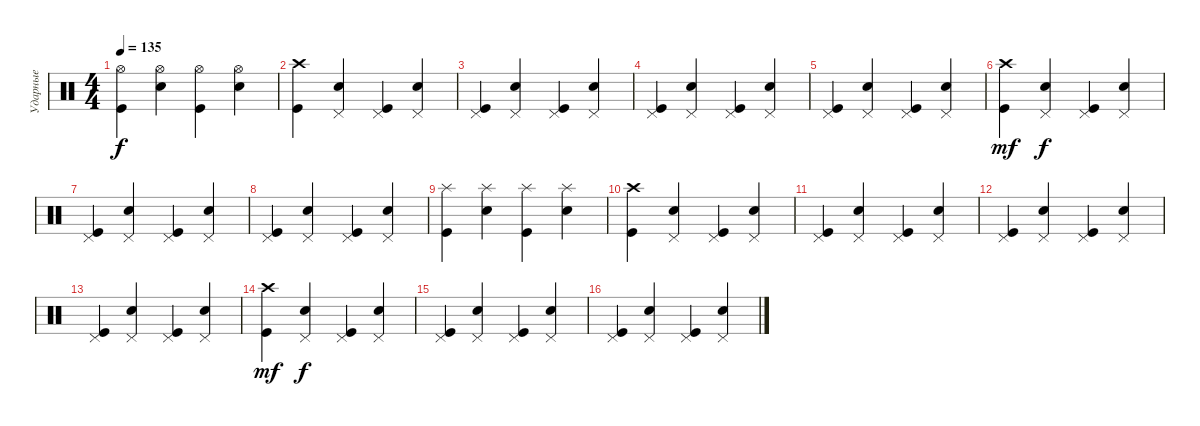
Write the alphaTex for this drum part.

\track ("Ударные" "Ударные") {instrument percussion}
\staff {score}
\articulation defaults
\ts (4 4)
\tempo 135
\clef neutral
\ks c
("Hi-Hat (open)" "Kick (hit)").4{dy f} ("Hi-Hat (open)" "Snare (hit) 2").4 ("Hi-Hat (open)" "Kick (hit)").4 ("Hi-Hat (open)" "Snare (hit) 2").4 |
("Crash high (hit)" "Kick (hit)").4 ("Pedal Hi-Hat (hit)" "Snare (hit) 2").4 ("Pedal Hi-Hat (hit)" "Kick (hit)").4 ("Pedal Hi-Hat (hit)" "Snare (hit) 2").4 |
("Pedal Hi-Hat (hit)" "Kick (hit)").4 ("Pedal Hi-Hat (hit)" "Snare (hit) 2").4 ("Pedal Hi-Hat (hit)" "Kick (hit)").4 ("Pedal Hi-Hat (hit)" "Snare (hit) 2").4 |
("Pedal Hi-Hat (hit)" "Kick (hit)").4 ("Pedal Hi-Hat (hit)" "Snare (hit) 2").4 ("Pedal Hi-Hat (hit)" "Kick (hit)").4 ("Pedal Hi-Hat (hit)" "Snare (hit) 2").4 |
("Pedal Hi-Hat (hit)" "Kick (hit)").4 ("Pedal Hi-Hat (hit)" "Snare (hit) 2").4 ("Pedal Hi-Hat (hit)" "Kick (hit)").4 ("Pedal Hi-Hat (hit)" "Snare (hit) 2").4 |
("Crash high (hit)" "Kick (hit)").4{dy mf} ("Pedal Hi-Hat (hit)" "Snare (hit) 2").4{dy f} ("Pedal Hi-Hat (hit)" "Kick (hit)").4 ("Pedal Hi-Hat (hit)" "Snare (hit) 2").4 |
("Pedal Hi-Hat (hit)" "Kick (hit)").4 ("Pedal Hi-Hat (hit)" "Snare (hit) 2").4 ("Pedal Hi-Hat (hit)" "Kick (hit)").4 ("Pedal Hi-Hat (hit)" "Snare (hit) 2").4 |
("Pedal Hi-Hat (hit)" "Kick (hit)").4 ("Pedal Hi-Hat (hit)" "Snare (hit) 2").4 ("Pedal Hi-Hat (hit)" "Kick (hit)").4 ("Pedal Hi-Hat (hit)" "Snare (hit) 2").4 |
("Splash (hit)" "Kick (hit)").4 ("Splash (hit)" "Snare (hit) 2").4 ("Splash (hit)" "Kick (hit)").4 ("Splash (hit)" "Snare (hit) 2").4 |
("Crash high (hit)" "Kick (hit)").4 ("Pedal Hi-Hat (hit)" "Snare (hit) 2").4 ("Pedal Hi-Hat (hit)" "Kick (hit)").4 ("Pedal Hi-Hat (hit)" "Snare (hit) 2").4 |
("Pedal Hi-Hat (hit)" "Kick (hit)").4 ("Pedal Hi-Hat (hit)" "Snare (hit) 2").4 ("Pedal Hi-Hat (hit)" "Kick (hit)").4 ("Pedal Hi-Hat (hit)" "Snare (hit) 2").4 |
("Pedal Hi-Hat (hit)" "Kick (hit)").4 ("Pedal Hi-Hat (hit)" "Snare (hit) 2").4 ("Pedal Hi-Hat (hit)" "Kick (hit)").4 ("Pedal Hi-Hat (hit)" "Snare (hit) 2").4 |
("Pedal Hi-Hat (hit)" "Kick (hit)").4 ("Pedal Hi-Hat (hit)" "Snare (hit) 2").4 ("Pedal Hi-Hat (hit)" "Kick (hit)").4 ("Pedal Hi-Hat (hit)" "Snare (hit) 2").4 |
("Crash high (hit)" "Kick (hit)").4{dy mf} ("Pedal Hi-Hat (hit)" "Snare (hit) 2").4{dy f} ("Pedal Hi-Hat (hit)" "Kick (hit)").4 ("Pedal Hi-Hat (hit)" "Snare (hit) 2").4 |
("Pedal Hi-Hat (hit)" "Kick (hit)").4 ("Pedal Hi-Hat (hit)" "Snare (hit) 2").4 ("Pedal Hi-Hat (hit)" "Kick (hit)").4 ("Pedal Hi-Hat (hit)" "Snare (hit) 2").4 |
("Pedal Hi-Hat (hit)" "Kick (hit)").4 ("Pedal Hi-Hat (hit)" "Snare (hit) 2").4 ("Pedal Hi-Hat (hit)" "Kick (hit)").4 ("Pedal Hi-Hat (hit)" "Snare (hit) 2").4
